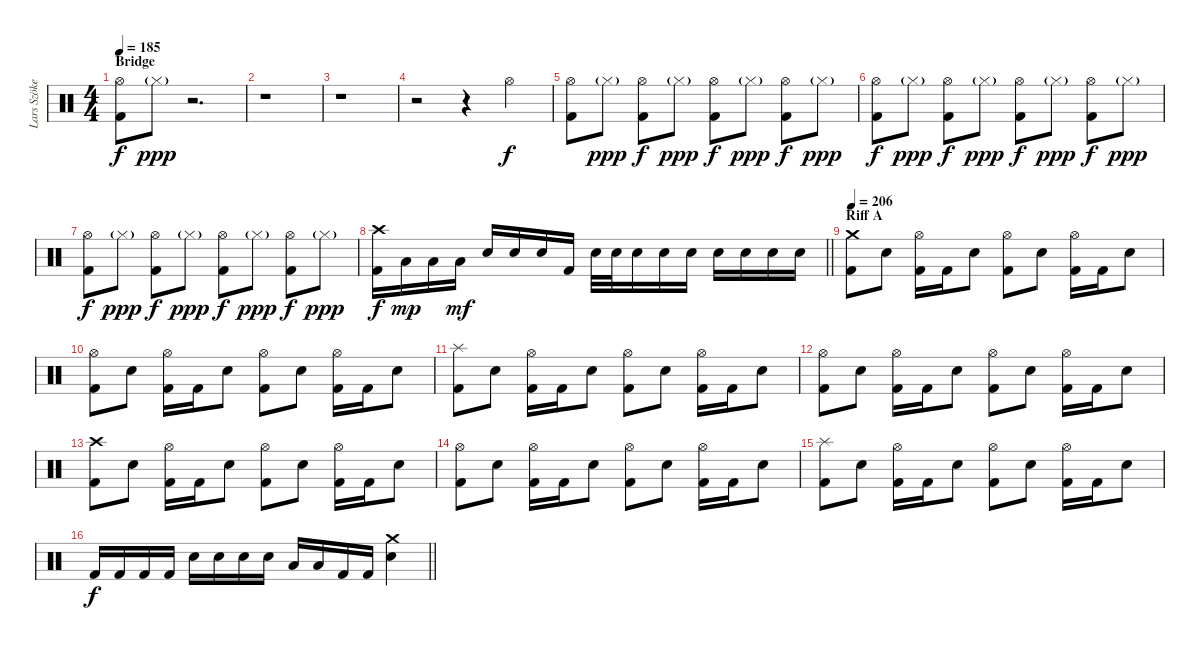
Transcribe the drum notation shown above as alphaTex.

\track ("Lars Szöke" "Lars Szöke") {instrument percussion}
\staff {score}
\articulation defaults
\ts (4 4)
\section ("" "Bridge")
\tempo 185
\clef neutral
\ks c
("Hi-Hat (open)" "Kick (hit) 2").8{dy f} "Hi-Hat (closed)"{g}.8{dy ppp} r.2{d} |
r.1 |
r.1 |
r.2 r.4 "Hi-Hat (open)".4{dy f} |
("Hi-Hat (open)" "Kick (hit) 2").8 "Hi-Hat (closed)"{g}.8{dy ppp} ("Hi-Hat (open)" "Kick (hit) 2").8{dy f} "Hi-Hat (closed)"{g}.8{dy ppp} ("Hi-Hat (open)" "Kick (hit) 2").8{dy f} "Hi-Hat (closed)"{g}.8{dy ppp} ("Hi-Hat (open)" "Kick (hit) 2").8{dy f} "Hi-Hat (closed)"{g}.8{dy ppp} |
("Hi-Hat (open)" "Kick (hit) 2").8{dy f} "Hi-Hat (closed)"{g}.8{dy ppp} ("Hi-Hat (open)" "Kick (hit) 2").8{dy f} "Hi-Hat (closed)"{g}.8{dy ppp} ("Hi-Hat (open)" "Kick (hit) 2").8{dy f} "Hi-Hat (closed)"{g}.8{dy ppp} ("Hi-Hat (open)" "Kick (hit) 2").8{dy f} "Hi-Hat (closed)"{g}.8{dy ppp} |
("Hi-Hat (open)" "Kick (hit) 2").8{dy f} "Hi-Hat (closed)"{g}.8{dy ppp} ("Hi-Hat (open)" "Kick (hit) 2").8{dy f} "Hi-Hat (closed)"{g}.8{dy ppp} ("Hi-Hat (open)" "Kick (hit) 2").8{dy f} "Hi-Hat (closed)"{g}.8{dy ppp} ("Hi-Hat (open)" "Kick (hit) 2").8{dy f} "Hi-Hat (closed)"{g}.8{dy ppp} |
\barLineRight lightlight
("Crash high (hit)" "Kick (hit) 2").16{dy f} "Low Floor Tom (hit)".16{dy mp} "Low Floor Tom (hit)".16 "Low Floor Tom (hit)".16{dy mf} "Snare (hit) 2".16 "Snare (hit) 2".16 "Snare (hit) 2".16 "Kick (hit) 2".16 "Snare (hit) 2".32 "Snare (hit) 2".32 "Snare (hit) 2".16 "Snare (hit) 2".16 "Snare (hit) 2".16 "Snare (hit) 2".16 "Snare (hit) 2".16 "Snare (hit) 2".16 "Snare (hit) 2".16 |
\section ("" "Riff A")
\tempo 206
("Crash medium (hit)" "Kick (hit) 2").8 "Snare (hit) 2".8 ("Hi-Hat (open)" "Kick (hit) 2").16 "Kick (hit) 2".16 "Snare (hit) 2".8 ("Hi-Hat (open)" "Kick (hit) 2").8 "Snare (hit) 2".8 ("Hi-Hat (open)" "Kick (hit) 2").16 "Kick (hit) 2".16 "Snare (hit) 2".8 |
("Hi-Hat (open)" "Kick (hit) 2").8 "Snare (hit) 2".8 ("Hi-Hat (open)" "Kick (hit) 2").16 "Kick (hit) 2".16 "Snare (hit) 2".8 ("Hi-Hat (open)" "Kick (hit) 2").8 "Snare (hit) 2".8 ("Hi-Hat (open)" "Kick (hit) 2").16 "Kick (hit) 2".16 "Snare (hit) 2".8 |
("Splash (hit)" "Kick (hit) 2").8 "Snare (hit) 2".8 ("Hi-Hat (open)" "Kick (hit) 2").16 "Kick (hit) 2".16 "Snare (hit) 2".8 ("Hi-Hat (open)" "Kick (hit) 2").8 "Snare (hit) 2".8 ("Hi-Hat (open)" "Kick (hit) 2").16 "Kick (hit) 2".16 "Snare (hit) 2".8 |
("Hi-Hat (open)" "Kick (hit) 2").8 "Snare (hit) 2".8 ("Hi-Hat (open)" "Kick (hit) 2").16 "Kick (hit) 2".16 "Snare (hit) 2".8 ("Hi-Hat (open)" "Kick (hit) 2").8 "Snare (hit) 2".8 ("Hi-Hat (open)" "Kick (hit) 2").16 "Kick (hit) 2".16 "Snare (hit) 2".8 |
("Crash high (hit)" "Kick (hit) 2").8 "Snare (hit) 2".8 ("Hi-Hat (open)" "Kick (hit) 2").16 "Kick (hit) 2".16 "Snare (hit) 2".8 ("Hi-Hat (open)" "Kick (hit) 2").8 "Snare (hit) 2".8 ("Hi-Hat (open)" "Kick (hit) 2").16 "Kick (hit) 2".16 "Snare (hit) 2".8 |
("Hi-Hat (open)" "Kick (hit) 2").8 "Snare (hit) 2".8 ("Hi-Hat (open)" "Kick (hit) 2").16 "Kick (hit) 2".16 "Snare (hit) 2".8 ("Hi-Hat (open)" "Kick (hit) 2").8 "Snare (hit) 2".8 ("Hi-Hat (open)" "Kick (hit) 2").16 "Kick (hit) 2".16 "Snare (hit) 2".8 |
("Splash (hit)" "Kick (hit) 2").8 "Snare (hit) 2".8 ("Hi-Hat (open)" "Kick (hit) 2").16 "Kick (hit) 2".16 "Snare (hit) 2".8 ("Hi-Hat (open)" "Kick (hit) 2").8 "Snare (hit) 2".8 ("Hi-Hat (open)" "Kick (hit) 2").16 "Kick (hit) 2".16 "Snare (hit) 2".8 |
\barLineRight lightlight "Kick (hit) 2".16{dy f} "Kick (hit) 2".16 "Kick (hit) 2".16 "Kick (hit) 2".16 "Snare (hit) 2".16 "Snare (hit) 2".16 "Snare (hit) 2".16 "Snare (hit) 2".16 "Low Tom (hit)".16 "Low Tom (hit)".16 "Kick (hit) 2".16 "Kick (hit) 2".16
("Crash medium (hit)" "Snare (hit) 2").4
